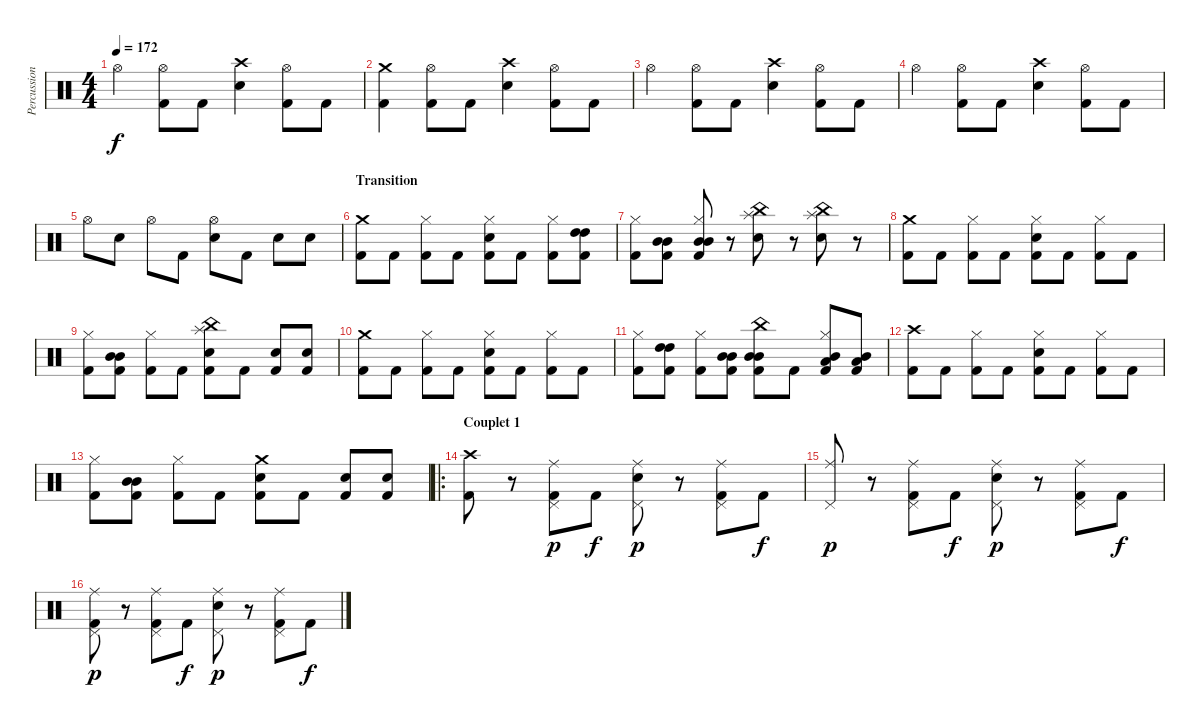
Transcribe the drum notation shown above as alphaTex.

\track ("Percussions" "Percussion") {instrument percussion}
\staff {score}
\articulation defaults
\ts (4 4)
\tempo 172
\clef neutral
\ks c "Hi-Hat (open)".4{dy f}
("Hi-Hat (open)" "Kick (hit) 2").8 "Kick (hit) 2".8 ("Crash high (hit)" "Snare (hit) 2").4 ("Hi-Hat (open)" "Kick (hit) 2").8 "Kick (hit) 2".8 |
("Crash medium (hit)" "Kick (hit) 2").4 ("Hi-Hat (open)" "Kick (hit) 2").8 "Kick (hit) 2".8 ("Crash high (hit)" "Snare (hit) 2").4 ("Hi-Hat (open)" "Kick (hit) 2").8 "Kick (hit) 2".8 |
"Hi-Hat (open)".4 ("Hi-Hat (open)" "Kick (hit) 2").8 "Kick (hit) 2".8 ("Crash high (hit)" "Snare (hit) 2").4 ("Hi-Hat (open)" "Kick (hit) 2").8 "Kick (hit) 2".8 |
"Hi-Hat (open)".4 ("Hi-Hat (open)" "Kick (hit) 2").8 "Kick (hit) 2".8 ("Crash high (hit)" "Snare (hit) 2").4 ("Hi-Hat (open)" "Kick (hit) 2").8 "Kick (hit) 2".8 |
"Hi-Hat (open)".8 "Snare (hit) 2".8 "Hi-Hat (open)".8 "Kick (hit) 2".8 ("Hi-Hat (open)" "Snare (hit) 2").8 "Kick (hit) 2".8 "Snare (hit) 2".8 "Snare (hit) 2".8 |
\section ("" "Transition")
("Crash medium (hit)" "Kick (hit) 2").8 "Kick (hit) 2".8 ("Hi-Hat (closed)" "Kick (hit) 2").8 "Kick (hit) 2".8 ("Hi-Hat (closed)" "Snare (hit) 2" "Kick (hit) 2").8 "Kick (hit) 2".8 ("Hi-Hat (closed)" "Kick (hit) 2").8 ("High Tom (hit)" "High Tom (hit)" "Kick (hit) 2").8 |
("Hi-Hat (closed)" "Kick (hit) 2").8 ("Mid Tom (hit)" "Mid Tom (hit)" "Kick (hit) 2").8 ("Hi-Hat (closed)" "Mid Tom (hit)" "Mid Tom (hit)" "Kick (hit) 2").8 r.8 ("China (hit)" "Splash (hit)" "Snare (hit) 2").8 r.8 ("China (hit)" "Splash (hit)" "Snare (hit) 2").8 r.8 |
("Crash medium (hit)" "Kick (hit) 2").8 "Kick (hit) 2".8 ("Hi-Hat (closed)" "Kick (hit) 2").8 "Kick (hit) 2".8 ("Hi-Hat (closed)" "Snare (hit) 2" "Kick (hit) 2").8 "Kick (hit) 2".8 ("Hi-Hat (closed)" "Kick (hit) 2").8 "Kick (hit) 2".8 |
("Hi-Hat (closed)" "Kick (hit) 2").8 ("Mid Tom (hit)" "Mid Tom (hit)" "Kick (hit) 2").8 ("Hi-Hat (closed)" "Kick (hit) 2").8 "Kick (hit) 2".8 ("China (hit)" "Splash (hit)" "Snare (hit) 2" "Kick (hit) 2").8 "Kick (hit) 2".8 ("Snare (hit) 2" "Kick (hit) 2").8 ("Snare (hit) 2" "Kick (hit) 2").8 |
("Crash medium (hit)" "Kick (hit) 2").8 "Kick (hit) 2".8 ("Hi-Hat (closed)" "Kick (hit) 2").8 "Kick (hit) 2".8 ("Hi-Hat (closed)" "Snare (hit) 2" "Kick (hit) 2").8 "Kick (hit) 2".8 ("Hi-Hat (closed)" "Kick (hit) 2").8 "Kick (hit) 2".8 |
("Hi-Hat (closed)" "Kick (hit) 2").8 ("High Tom (hit)" "High Tom (hit)" "Kick (hit) 2").8 ("Hi-Hat (closed)" "Kick (hit) 2").8 ("Mid Tom (hit)" "Mid Tom (hit)" "Kick (hit) 2").8 ("China (hit)" "Mid Tom (hit)" "Mid Tom (hit)" "Kick (hit) 2").8 "Kick (hit) 2".8 ("Hi-Hat (closed)" "Mid Tom (hit)" "Low Tom (hit)" "Kick (hit) 2").8 ("Mid Tom (hit)" "Low Tom (hit)" "Kick (hit) 2").8 |
("Crash high (hit)" "Kick (hit) 2").8 "Kick (hit) 2".8 ("Hi-Hat (closed)" "Kick (hit) 2").8 "Kick (hit) 2".8 ("Hi-Hat (closed)" "Snare (hit) 2" "Kick (hit) 2").8 "Kick (hit) 2".8 ("Hi-Hat (closed)" "Kick (hit) 2").8 "Kick (hit) 2".8 |
("Hi-Hat (closed)" "Kick (hit) 2").8 ("Mid Tom (hit)" "Mid Tom (hit)" "Kick (hit) 2").8 ("Hi-Hat (closed)" "Kick (hit) 2").8 "Kick (hit) 2".8 ("Crash medium (hit)" "Snare (hit) 2" "Kick (hit) 2").8 "Kick (hit) 2".8 ("Snare (hit) 2" "Kick (hit) 2").8 ("Snare (hit) 2" "Kick (hit) 2").8 |
\ro
\section ("" "Couplet 1")
("Crash high (hit)" "Kick (hit) 2").8 r.8 ("Pedal Hi-Hat (hit)" "Ride (middle)" "Kick (hit) 2").8{dy p} "Kick (hit) 2".8{dy f} ("Pedal Hi-Hat (hit)" "Ride (middle)" "Snare (hit) 2").8{dy p} r.8 ("Pedal Hi-Hat (hit)" "Ride (middle)" "Kick (hit) 2").8 "Kick (hit) 2".8{dy f} |
("Pedal Hi-Hat (hit)" "Ride (middle)").8{dy p} r.8 ("Pedal Hi-Hat (hit)" "Ride (middle)" "Kick (hit) 2").8 "Kick (hit) 2".8{dy f} ("Pedal Hi-Hat (hit)" "Ride (middle)" "Snare (hit) 2").8{dy p} r.8 ("Pedal Hi-Hat (hit)" "Ride (middle)" "Kick (hit) 2").8 "Kick (hit) 2".8{dy f} |
("Pedal Hi-Hat (hit)" "Ride (middle)" "Kick (hit) 2").8{dy p} r.8 ("Pedal Hi-Hat (hit)" "Ride (middle)" "Kick (hit) 2").8 "Kick (hit) 2".8{dy f} ("Pedal Hi-Hat (hit)" "Ride (middle)" "Snare (hit) 2").8{dy p} r.8 ("Pedal Hi-Hat (hit)" "Ride (middle)" "Kick (hit) 2").8 "Kick (hit) 2".8{dy f}
